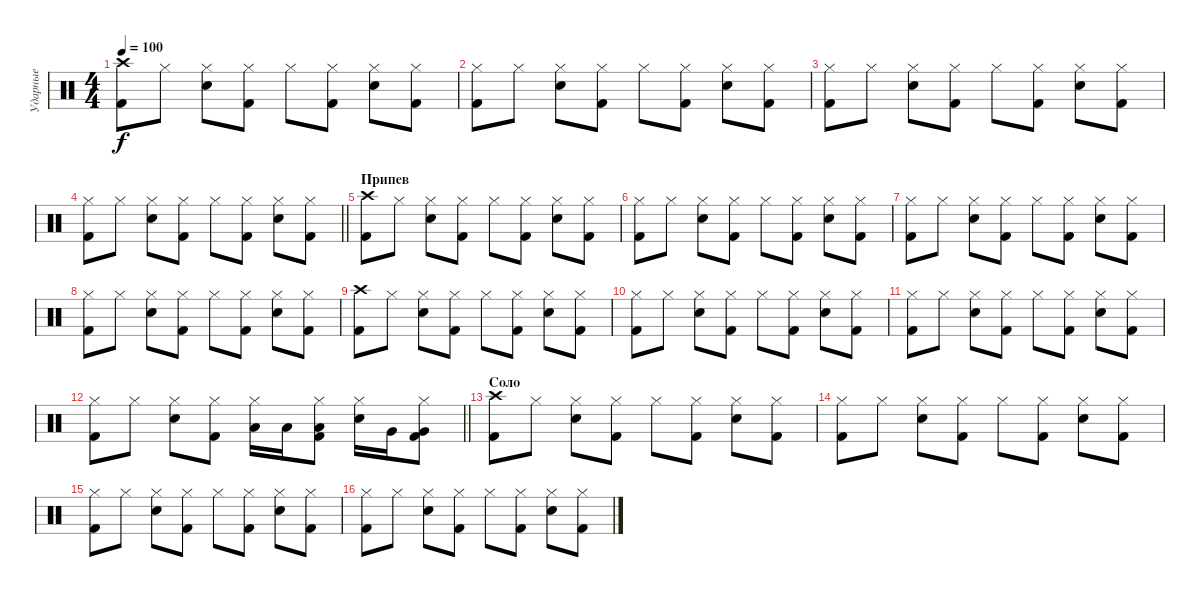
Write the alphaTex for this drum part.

\track ("Ударные" "Ударные") {instrument percussion}
\staff {score}
\articulation defaults
\ts (4 4)
\tempo 100
\clef neutral
\ks c
("Crash high (hit)" "Kick (hit) 2").8{dy f} "Hi-Hat (closed)".8 ("Hi-Hat (closed)" "Snare (hit) 2").8 ("Hi-Hat (closed)" "Kick (hit) 2").8 "Hi-Hat (closed)".8 ("Hi-Hat (closed)" "Kick (hit) 2").8 ("Hi-Hat (closed)" "Snare (hit) 2").8 ("Hi-Hat (closed)" "Kick (hit) 2").8 |
("Hi-Hat (closed)" "Kick (hit) 2").8 "Hi-Hat (closed)".8 ("Hi-Hat (closed)" "Snare (hit) 2").8 ("Hi-Hat (closed)" "Kick (hit) 2").8 "Hi-Hat (closed)".8 ("Hi-Hat (closed)" "Kick (hit) 2").8 ("Hi-Hat (closed)" "Snare (hit) 2").8 ("Hi-Hat (closed)" "Kick (hit) 2").8 |
("Hi-Hat (closed)" "Kick (hit) 2").8 "Hi-Hat (closed)".8 ("Hi-Hat (closed)" "Snare (hit) 2").8 ("Hi-Hat (closed)" "Kick (hit) 2").8 "Hi-Hat (closed)".8 ("Hi-Hat (closed)" "Kick (hit) 2").8 ("Hi-Hat (closed)" "Snare (hit) 2").8 ("Hi-Hat (closed)" "Kick (hit) 2").8 |
\barLineRight lightlight
("Hi-Hat (closed)" "Kick (hit) 2").8 "Hi-Hat (closed)".8 ("Hi-Hat (closed)" "Snare (hit) 2").8 ("Hi-Hat (closed)" "Kick (hit) 2").8 "Hi-Hat (closed)".8 ("Hi-Hat (closed)" "Kick (hit) 2").8 ("Hi-Hat (closed)" "Snare (hit) 2").8 ("Hi-Hat (closed)" "Kick (hit) 2").8 |
\section ("" "Припев")
("Crash high (hit)" "Kick (hit) 2").8 "Hi-Hat (closed)".8 ("Hi-Hat (closed)" "Snare (hit) 2").8 ("Hi-Hat (closed)" "Kick (hit) 2").8 "Hi-Hat (closed)".8 ("Hi-Hat (closed)" "Kick (hit) 2").8 ("Hi-Hat (closed)" "Snare (hit) 2").8 ("Hi-Hat (closed)" "Kick (hit) 2").8 |
("Hi-Hat (closed)" "Kick (hit) 2").8 "Hi-Hat (closed)".8 ("Hi-Hat (closed)" "Snare (hit) 2").8 ("Hi-Hat (closed)" "Kick (hit) 2").8 "Hi-Hat (closed)".8 ("Hi-Hat (closed)" "Kick (hit) 2").8 ("Hi-Hat (closed)" "Snare (hit) 2").8 ("Hi-Hat (closed)" "Kick (hit) 2").8 |
("Hi-Hat (closed)" "Kick (hit) 2").8 "Hi-Hat (closed)".8 ("Hi-Hat (closed)" "Snare (hit) 2").8 ("Hi-Hat (closed)" "Kick (hit) 2").8 "Hi-Hat (closed)".8 ("Hi-Hat (closed)" "Kick (hit) 2").8 ("Hi-Hat (closed)" "Snare (hit) 2").8 ("Hi-Hat (closed)" "Kick (hit) 2").8 |
("Hi-Hat (closed)" "Kick (hit) 2").8 "Hi-Hat (closed)".8 ("Hi-Hat (closed)" "Snare (hit) 2").8 ("Hi-Hat (closed)" "Kick (hit) 2").8 "Hi-Hat (closed)".8 ("Hi-Hat (closed)" "Kick (hit) 2").8 ("Hi-Hat (closed)" "Snare (hit) 2").8 ("Hi-Hat (closed)" "Kick (hit) 2").8 |
("Crash high (hit)" "Kick (hit) 2").8 "Hi-Hat (closed)".8 ("Hi-Hat (closed)" "Snare (hit) 2").8 ("Hi-Hat (closed)" "Kick (hit) 2").8 "Hi-Hat (closed)".8 ("Hi-Hat (closed)" "Kick (hit) 2").8 ("Hi-Hat (closed)" "Snare (hit) 2").8 ("Hi-Hat (closed)" "Kick (hit) 2").8 |
("Hi-Hat (closed)" "Kick (hit) 2").8 "Hi-Hat (closed)".8 ("Hi-Hat (closed)" "Snare (hit) 2").8 ("Hi-Hat (closed)" "Kick (hit) 2").8 "Hi-Hat (closed)".8 ("Hi-Hat (closed)" "Kick (hit) 2").8 ("Hi-Hat (closed)" "Snare (hit) 2").8 ("Hi-Hat (closed)" "Kick (hit) 2").8 |
("Hi-Hat (closed)" "Kick (hit) 2").8 "Hi-Hat (closed)".8 ("Hi-Hat (closed)" "Snare (hit) 2").8 ("Hi-Hat (closed)" "Kick (hit) 2").8 "Hi-Hat (closed)".8 ("Hi-Hat (closed)" "Kick (hit) 2").8 ("Hi-Hat (closed)" "Snare (hit) 2").8 ("Hi-Hat (closed)" "Kick (hit) 2").8 |
\barLineRight lightlight
("Hi-Hat (closed)" "Kick (hit) 2").8 "Hi-Hat (closed)".8 ("Hi-Hat (closed)" "Snare (hit) 2").8 ("Hi-Hat (closed)" "Kick (hit) 2").8 ("Hi-Hat (closed)" "Low Tom (hit)").16 "Low Tom (hit)".16 ("Hi-Hat (closed)" "Low Tom (hit)" "Kick (hit) 2").8 ("Hi-Hat (closed)" "Snare (hit) 2").16 "Very Low Tom (hit)".16 ("Hi-Hat (closed)" "Very Low Tom (hit)" "Kick (hit) 2").8 |
\section ("" "Соло")
("Crash high (hit)" "Kick (hit) 2").8 "Hi-Hat (closed)".8 ("Hi-Hat (closed)" "Snare (hit) 2").8 ("Hi-Hat (closed)" "Kick (hit) 2").8 "Hi-Hat (closed)".8 ("Hi-Hat (closed)" "Kick (hit) 2").8 ("Hi-Hat (closed)" "Snare (hit) 2").8 ("Hi-Hat (closed)" "Kick (hit) 2").8 |
("Hi-Hat (closed)" "Kick (hit) 2").8 "Hi-Hat (closed)".8 ("Hi-Hat (closed)" "Snare (hit) 2").8 ("Hi-Hat (closed)" "Kick (hit) 2").8 "Hi-Hat (closed)".8 ("Hi-Hat (closed)" "Kick (hit) 2").8 ("Hi-Hat (closed)" "Snare (hit) 2").8 ("Hi-Hat (closed)" "Kick (hit) 2").8 |
("Hi-Hat (closed)" "Kick (hit) 2").8 "Hi-Hat (closed)".8 ("Hi-Hat (closed)" "Snare (hit) 2").8 ("Hi-Hat (closed)" "Kick (hit) 2").8 "Hi-Hat (closed)".8 ("Hi-Hat (closed)" "Kick (hit) 2").8 ("Hi-Hat (closed)" "Snare (hit) 2").8 ("Hi-Hat (closed)" "Kick (hit) 2").8 |
("Hi-Hat (closed)" "Kick (hit) 2").8 "Hi-Hat (closed)".8 ("Hi-Hat (closed)" "Snare (hit) 2").8 ("Hi-Hat (closed)" "Kick (hit) 2").8 "Hi-Hat (closed)".8 ("Hi-Hat (closed)" "Kick (hit) 2").8 ("Hi-Hat (closed)" "Snare (hit) 2").8 ("Hi-Hat (closed)" "Kick (hit) 2").8
